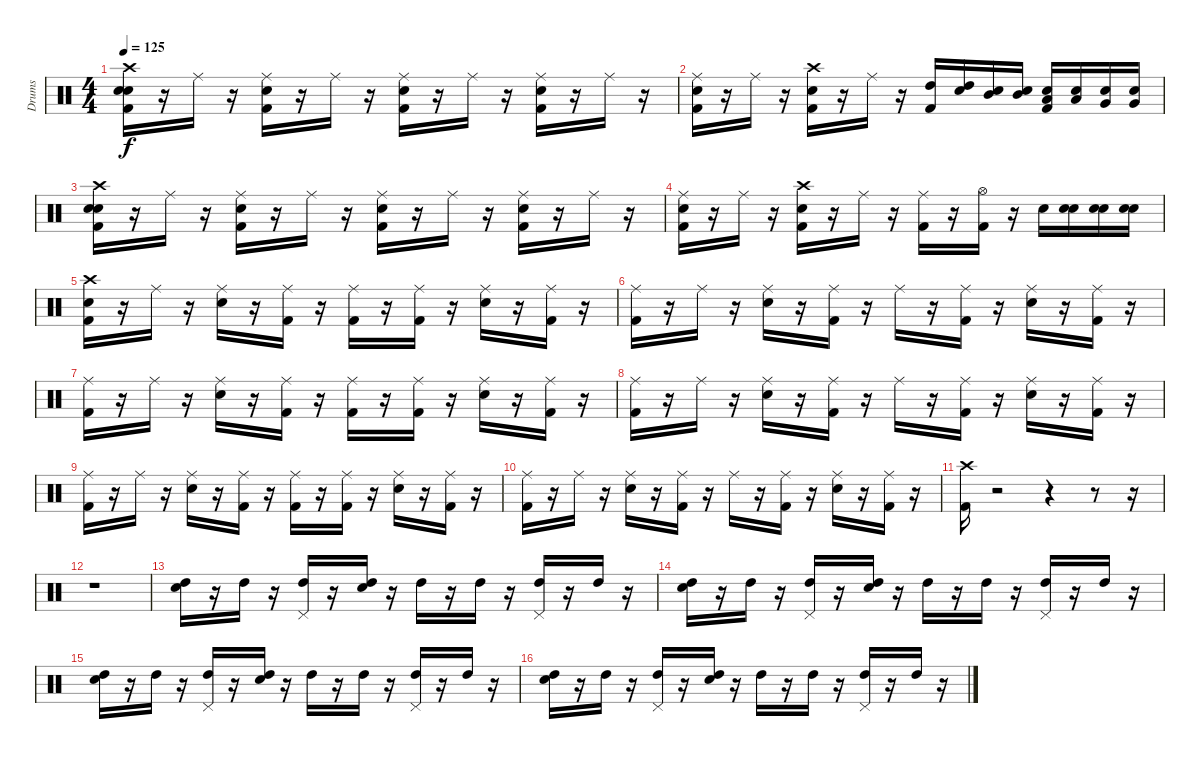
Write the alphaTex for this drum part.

\track ("Drums" "Drums") {instrument percussion}
\staff {score}
\articulation defaults
\ts (4 4)
\tempo 125
\clef neutral
\ks c
("Snare (hit)" "Snare (hit) 2" "Kick (hit) 2" "Crash high (hit)").16{dy f} r.16 "Ride (middle)".16 r.16 ("Ride (middle)" "Snare (hit) 2" "Kick (hit) 2").16 r.16 "Ride (middle)".16 r.16 ("Ride (middle)" "Snare (hit) 2" "Kick (hit) 2").16 r.16 "Ride (middle)".16 r.16 ("Ride (middle)" "Snare (hit) 2" "Kick (hit) 2").16 r.16 "Ride (middle)".16 r.16 |
("Ride (middle)" "Snare (hit) 2" "Kick (hit) 2").16 r.16 "Ride (middle)".16 r.16 ("Snare (hit) 2" "Kick (hit) 2" "Crash high (hit)").16 r.16 "Ride (middle)".16 r.16 ("Kick (hit) 2" "High Tom (hit)").16 ("Snare (hit)" "High Tom (hit)").16 ("Snare (hit)" "Mid Tom (hit)").16 ("Snare (hit)" "Mid Tom (hit)").16 ("Snare (hit)" "Kick (hit) 2" "Low Tom (hit)").16 ("Snare (hit)" "Low Tom (hit)").16 ("Snare (hit)" "Very Low Tom (hit)").16 ("Snare (hit)" "Very Low Tom (hit)").16 |
("Snare (hit)" "Snare (hit) 2" "Kick (hit) 2" "Crash high (hit)").16 r.16 "Ride (middle)".16 r.16 ("Ride (middle)" "Snare (hit) 2" "Kick (hit) 2").16 r.16 "Ride (middle)".16 r.16 ("Ride (middle)" "Snare (hit) 2" "Kick (hit) 2").16 r.16 "Ride (middle)".16 r.16 ("Ride (middle)" "Snare (hit) 2" "Kick (hit) 2").16 r.16 "Ride (middle)".16 r.16 |
("Ride (middle)" "Snare (hit) 2" "Kick (hit) 2").16 r.16 "Ride (middle)".16 r.16 ("Snare (hit) 2" "Kick (hit) 2" "Crash high (hit)").16 r.16 "Ride (middle)".16 r.16 ("Kick (hit) 2" "Ride (middle)").16 r.16 ("Kick (hit) 2" "Hi-Hat (open)").16 r.16 "Snare (hit) 2".16 ("Snare (hit)" "Snare (hit) 2").16 ("Snare (hit)" "Snare (hit) 2").16 ("Snare (hit)" "Snare (hit) 2").16 |
("Snare (hit)" "Kick (hit) 2" "Crash high (hit)").16 r.16 "Ride (middle)".16 r.16 ("Ride (middle)" "Snare (hit) 2").16 r.16 ("Ride (middle)" "Kick (hit) 2").16 r.16 ("Ride (middle)" "Kick (hit) 2").16 r.16 ("Ride (middle)" "Kick (hit) 2").16 r.16 ("Ride (middle)" "Snare (hit) 2").16 r.16 ("Ride (middle)" "Kick (hit) 2").16 r.16 |
("Kick (hit) 2" "Ride (middle)").16 r.16 "Ride (middle)".16 r.16 ("Ride (middle)" "Snare (hit) 2").16 r.16 ("Ride (middle)" "Kick (hit) 2").16 r.16 "Ride (middle)".16 r.16 ("Ride (middle)" "Kick (hit) 2").16 r.16 ("Ride (middle)" "Snare (hit) 2").16 r.16 ("Ride (middle)" "Kick (hit) 2").16 r.16 |
("Kick (hit) 2" "Ride (middle)").16 r.16 "Ride (middle)".16 r.16 ("Ride (middle)" "Snare (hit) 2").16 r.16 ("Ride (middle)" "Kick (hit) 2").16 r.16 ("Ride (middle)" "Kick (hit) 2").16 r.16 ("Ride (middle)" "Kick (hit) 2").16 r.16 ("Ride (middle)" "Snare (hit) 2").16 r.16 ("Ride (middle)" "Kick (hit) 2").16 r.16 |
("Kick (hit) 2" "Ride (middle)").16 r.16 "Ride (middle)".16 r.16 ("Ride (middle)" "Snare (hit) 2").16 r.16 ("Ride (middle)" "Kick (hit) 2").16 r.16 "Ride (middle)".16 r.16 ("Ride (middle)" "Kick (hit) 2").16 r.16 ("Ride (middle)" "Snare (hit) 2").16 r.16 ("Ride (middle)" "Kick (hit) 2").16 r.16 |
("Kick (hit) 2" "Ride (middle)").16 r.16 "Ride (middle)".16 r.16 ("Ride (middle)" "Snare (hit) 2").16 r.16 ("Ride (middle)" "Kick (hit) 2").16 r.16 ("Ride (middle)" "Kick (hit) 2").16 r.16 ("Ride (middle)" "Kick (hit) 2").16 r.16 ("Ride (middle)" "Snare (hit) 2").16 r.16 ("Ride (middle)" "Kick (hit) 2").16 r.16 |
("Kick (hit) 2" "Ride (middle)").16 r.16 "Ride (middle)".16 r.16 ("Ride (middle)" "Snare (hit) 2").16 r.16 ("Ride (middle)" "Kick (hit) 2").16 r.16 "Ride (middle)".16 r.16 ("Ride (middle)" "Kick (hit) 2").16 r.16 ("Ride (middle)" "Snare (hit) 2").16 r.16 ("Ride (middle)" "Kick (hit) 2").16 r.16 |
("Kick (hit) 2" "Crash high (hit)").16 r.2 r.4 r.8 r.16 |
r.1 |
("Snare (hit) 2" "High Tom (hit)").16 r.16 "High Tom (hit)".16 r.16 ("Pedal Hi-Hat (hit)" "High Tom (hit)").16 r.16 ("Snare (hit) 2" "High Tom (hit)").16 r.16 "High Tom (hit)".16 r.16 "High Tom (hit)".16 r.16 ("Pedal Hi-Hat (hit)" "High Tom (hit)").16 r.16 "High Tom (hit)".16 r.16 |
("Snare (hit) 2" "High Tom (hit)").16 r.16 "High Tom (hit)".16 r.16 ("Pedal Hi-Hat (hit)" "High Tom (hit)").16 r.16 ("Snare (hit) 2" "High Tom (hit)").16 r.16 "High Tom (hit)".16 r.16 "High Tom (hit)".16 r.16 ("Pedal Hi-Hat (hit)" "High Tom (hit)").16 r.16 "High Tom (hit)".16 r.16 |
("Snare (hit) 2" "High Tom (hit)").16 r.16 "High Tom (hit)".16 r.16 ("Pedal Hi-Hat (hit)" "High Tom (hit)").16 r.16 ("Snare (hit) 2" "High Tom (hit)").16 r.16 "High Tom (hit)".16 r.16 "High Tom (hit)".16 r.16 ("Pedal Hi-Hat (hit)" "High Tom (hit)").16 r.16 "High Tom (hit)".16 r.16 |
("Snare (hit) 2" "High Tom (hit)").16 r.16 "High Tom (hit)".16 r.16 ("Pedal Hi-Hat (hit)" "High Tom (hit)").16 r.16 ("Snare (hit) 2" "High Tom (hit)").16 r.16 "High Tom (hit)".16 r.16 "High Tom (hit)".16 r.16 ("Pedal Hi-Hat (hit)" "High Tom (hit)").16 r.16 "High Tom (hit)".16 r.16
